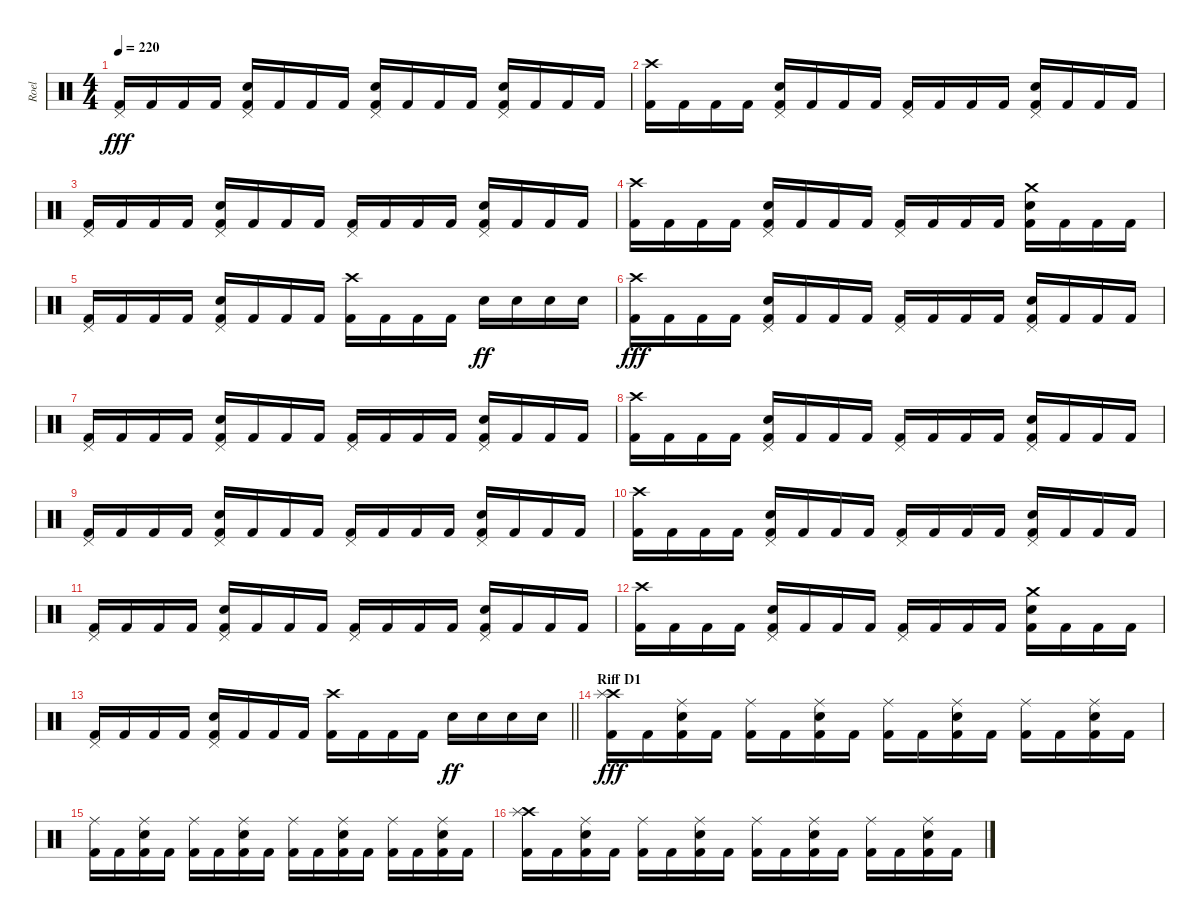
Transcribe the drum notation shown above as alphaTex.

\track ("Roel" "Roel") {instrument percussion}
\staff {score}
\articulation defaults
\ts (4 4)
\tempo 220
\clef neutral
\ks c
("Pedal Hi-Hat (hit)" "Kick (hit) 2").16{dy fff} "Kick (hit) 2".16 "Kick (hit) 2".16 "Kick (hit) 2".16 ("Pedal Hi-Hat (hit)" "Snare (hit) 2" "Kick (hit) 2").16 "Kick (hit) 2".16 "Kick (hit) 2".16 "Kick (hit) 2".16 ("Pedal Hi-Hat (hit)" "Snare (hit) 2" "Kick (hit) 2").16 "Kick (hit) 2".16 "Kick (hit) 2".16 "Kick (hit) 2".16 ("Pedal Hi-Hat (hit)" "Snare (hit) 2" "Kick (hit) 2").16 "Kick (hit) 2".16 "Kick (hit) 2".16 "Kick (hit) 2".16 |
("Crash high (hit)" "Kick (hit) 2").16 "Kick (hit) 2".16 "Kick (hit) 2".16 "Kick (hit) 2".16 ("Pedal Hi-Hat (hit)" "Snare (hit) 2" "Kick (hit) 2").16 "Kick (hit) 2".16 "Kick (hit) 2".16 "Kick (hit) 2".16 ("Pedal Hi-Hat (hit)" "Kick (hit) 2").16 "Kick (hit) 2".16 "Kick (hit) 2".16 "Kick (hit) 2".16 ("Pedal Hi-Hat (hit)" "Snare (hit) 2" "Kick (hit) 2").16 "Kick (hit) 2".16 "Kick (hit) 2".16 "Kick (hit) 2".16 |
("Pedal Hi-Hat (hit)" "Kick (hit) 2").16 "Kick (hit) 2".16 "Kick (hit) 2".16 "Kick (hit) 2".16 ("Pedal Hi-Hat (hit)" "Snare (hit) 2" "Kick (hit) 2").16 "Kick (hit) 2".16 "Kick (hit) 2".16 "Kick (hit) 2".16 ("Pedal Hi-Hat (hit)" "Kick (hit) 2").16 "Kick (hit) 2".16 "Kick (hit) 2".16 "Kick (hit) 2".16 ("Pedal Hi-Hat (hit)" "Snare (hit) 2" "Kick (hit) 2").16 "Kick (hit) 2".16 "Kick (hit) 2".16 "Kick (hit) 2".16 |
("Crash high (hit)" "Kick (hit) 2").16 "Kick (hit) 2".16 "Kick (hit) 2".16 "Kick (hit) 2".16 ("Pedal Hi-Hat (hit)" "Snare (hit) 2" "Kick (hit) 2").16 "Kick (hit) 2".16 "Kick (hit) 2".16 "Kick (hit) 2".16 ("Pedal Hi-Hat (hit)" "Kick (hit) 2").16 "Kick (hit) 2".16 "Kick (hit) 2".16 "Kick (hit) 2".16 ("Crash medium (hit)" "Snare (hit) 2" "Kick (hit) 2").16 "Kick (hit) 2".16 "Kick (hit) 2".16 "Kick (hit) 2".16 |
("Pedal Hi-Hat (hit)" "Kick (hit) 2").16 "Kick (hit) 2".16 "Kick (hit) 2".16 "Kick (hit) 2".16 ("Pedal Hi-Hat (hit)" "Snare (hit) 2" "Kick (hit) 2").16 "Kick (hit) 2".16 "Kick (hit) 2".16 "Kick (hit) 2".16 ("Crash high (hit)" "Kick (hit) 2").16 "Kick (hit) 2".16 "Kick (hit) 2".16 "Kick (hit) 2".16 "Snare (hit) 2".16{dy ff} "Snare (hit) 2".16 "Snare (hit) 2".16 "Snare (hit) 2".16 |
("Crash high (hit)" "Kick (hit) 2").16{dy fff} "Kick (hit) 2".16 "Kick (hit) 2".16 "Kick (hit) 2".16 ("Pedal Hi-Hat (hit)" "Snare (hit) 2" "Kick (hit) 2").16 "Kick (hit) 2".16 "Kick (hit) 2".16 "Kick (hit) 2".16 ("Pedal Hi-Hat (hit)" "Kick (hit) 2").16 "Kick (hit) 2".16 "Kick (hit) 2".16 "Kick (hit) 2".16 ("Pedal Hi-Hat (hit)" "Snare (hit) 2" "Kick (hit) 2").16 "Kick (hit) 2".16 "Kick (hit) 2".16 "Kick (hit) 2".16 |
("Pedal Hi-Hat (hit)" "Kick (hit) 2").16 "Kick (hit) 2".16 "Kick (hit) 2".16 "Kick (hit) 2".16 ("Pedal Hi-Hat (hit)" "Snare (hit) 2" "Kick (hit) 2").16 "Kick (hit) 2".16 "Kick (hit) 2".16 "Kick (hit) 2".16 ("Pedal Hi-Hat (hit)" "Kick (hit) 2").16 "Kick (hit) 2".16 "Kick (hit) 2".16 "Kick (hit) 2".16 ("Pedal Hi-Hat (hit)" "Snare (hit) 2" "Kick (hit) 2").16 "Kick (hit) 2".16 "Kick (hit) 2".16 "Kick (hit) 2".16 |
("Crash high (hit)" "Kick (hit) 2").16 "Kick (hit) 2".16 "Kick (hit) 2".16 "Kick (hit) 2".16 ("Pedal Hi-Hat (hit)" "Snare (hit) 2" "Kick (hit) 2").16 "Kick (hit) 2".16 "Kick (hit) 2".16 "Kick (hit) 2".16 ("Pedal Hi-Hat (hit)" "Kick (hit) 2").16 "Kick (hit) 2".16 "Kick (hit) 2".16 "Kick (hit) 2".16 ("Pedal Hi-Hat (hit)" "Snare (hit) 2" "Kick (hit) 2").16 "Kick (hit) 2".16 "Kick (hit) 2".16 "Kick (hit) 2".16 |
("Pedal Hi-Hat (hit)" "Kick (hit) 2").16 "Kick (hit) 2".16 "Kick (hit) 2".16 "Kick (hit) 2".16 ("Pedal Hi-Hat (hit)" "Snare (hit) 2" "Kick (hit) 2").16 "Kick (hit) 2".16 "Kick (hit) 2".16 "Kick (hit) 2".16 ("Pedal Hi-Hat (hit)" "Kick (hit) 2").16 "Kick (hit) 2".16 "Kick (hit) 2".16 "Kick (hit) 2".16 ("Pedal Hi-Hat (hit)" "Snare (hit) 2" "Kick (hit) 2").16 "Kick (hit) 2".16 "Kick (hit) 2".16 "Kick (hit) 2".16 |
("Crash high (hit)" "Kick (hit) 2").16 "Kick (hit) 2".16 "Kick (hit) 2".16 "Kick (hit) 2".16 ("Pedal Hi-Hat (hit)" "Snare (hit) 2" "Kick (hit) 2").16 "Kick (hit) 2".16 "Kick (hit) 2".16 "Kick (hit) 2".16 ("Pedal Hi-Hat (hit)" "Kick (hit) 2").16 "Kick (hit) 2".16 "Kick (hit) 2".16 "Kick (hit) 2".16 ("Pedal Hi-Hat (hit)" "Snare (hit) 2" "Kick (hit) 2").16 "Kick (hit) 2".16 "Kick (hit) 2".16 "Kick (hit) 2".16 |
("Pedal Hi-Hat (hit)" "Kick (hit) 2").16 "Kick (hit) 2".16 "Kick (hit) 2".16 "Kick (hit) 2".16 ("Pedal Hi-Hat (hit)" "Snare (hit) 2" "Kick (hit) 2").16 "Kick (hit) 2".16 "Kick (hit) 2".16 "Kick (hit) 2".16 ("Pedal Hi-Hat (hit)" "Kick (hit) 2").16 "Kick (hit) 2".16 "Kick (hit) 2".16 "Kick (hit) 2".16 ("Pedal Hi-Hat (hit)" "Snare (hit) 2" "Kick (hit) 2").16 "Kick (hit) 2".16 "Kick (hit) 2".16 "Kick (hit) 2".16 |
("Crash high (hit)" "Kick (hit) 2").16 "Kick (hit) 2".16 "Kick (hit) 2".16 "Kick (hit) 2".16 ("Pedal Hi-Hat (hit)" "Snare (hit) 2" "Kick (hit) 2").16 "Kick (hit) 2".16 "Kick (hit) 2".16 "Kick (hit) 2".16 ("Pedal Hi-Hat (hit)" "Kick (hit) 2").16 "Kick (hit) 2".16 "Kick (hit) 2".16 "Kick (hit) 2".16 ("Crash medium (hit)" "Snare (hit) 2" "Kick (hit) 2").16 "Kick (hit) 2".16 "Kick (hit) 2".16 "Kick (hit) 2".16 |
\barLineRight lightlight
("Pedal Hi-Hat (hit)" "Kick (hit) 2").16 "Kick (hit) 2".16 "Kick (hit) 2".16 "Kick (hit) 2".16 ("Pedal Hi-Hat (hit)" "Snare (hit) 2" "Kick (hit) 2").16 "Kick (hit) 2".16 "Kick (hit) 2".16 "Kick (hit) 2".16 ("Crash high (hit)" "Kick (hit) 2").16 "Kick (hit) 2".16 "Kick (hit) 2".16 "Kick (hit) 2".16 "Snare (hit) 2".16{dy ff} "Snare (hit) 2".16 "Snare (hit) 2".16 "Snare (hit) 2".16 |
\section ("" "Riff D1")
("Crash high (hit)" "Splash (hit)" "Kick (hit) 2").16{dy fff} "Kick (hit) 2".16 ("Ride (middle)" "Snare (hit) 2" "Kick (hit) 2").16 "Kick (hit) 2".16 ("Ride (middle)" "Kick (hit) 2").16 "Kick (hit) 2".16 ("Ride (middle)" "Snare (hit) 2" "Kick (hit) 2").16 "Kick (hit) 2".16 ("Ride (middle)" "Kick (hit) 2").16 "Kick (hit) 2".16 ("Ride (middle)" "Snare (hit) 2" "Kick (hit) 2").16 "Kick (hit) 2".16 ("Ride (middle)" "Kick (hit) 2").16 "Kick (hit) 2".16 ("Ride (middle)" "Snare (hit) 2" "Kick (hit) 2").16 "Kick (hit) 2".16 |
("Ride (middle)" "Kick (hit) 2").16 "Kick (hit) 2".16 ("Ride (middle)" "Snare (hit) 2" "Kick (hit) 2").16 "Kick (hit) 2".16 ("Ride (middle)" "Kick (hit) 2").16 "Kick (hit) 2".16 ("Ride (middle)" "Snare (hit) 2" "Kick (hit) 2").16 "Kick (hit) 2".16 ("Ride (middle)" "Kick (hit) 2").16 "Kick (hit) 2".16 ("Ride (middle)" "Snare (hit) 2" "Kick (hit) 2").16 "Kick (hit) 2".16 ("Ride (middle)" "Kick (hit) 2").16 "Kick (hit) 2".16 ("Ride (middle)" "Snare (hit) 2" "Kick (hit) 2").16 "Kick (hit) 2".16 |
("Crash high (hit)" "Splash (hit)" "Kick (hit) 2").16 "Kick (hit) 2".16 ("Ride (middle)" "Snare (hit) 2" "Kick (hit) 2").16 "Kick (hit) 2".16 ("Ride (middle)" "Kick (hit) 2").16 "Kick (hit) 2".16 ("Ride (middle)" "Snare (hit) 2" "Kick (hit) 2").16 "Kick (hit) 2".16 ("Ride (middle)" "Kick (hit) 2").16 "Kick (hit) 2".16 ("Ride (middle)" "Snare (hit) 2" "Kick (hit) 2").16 "Kick (hit) 2".16 ("Ride (middle)" "Kick (hit) 2").16 "Kick (hit) 2".16 ("Ride (middle)" "Snare (hit) 2" "Kick (hit) 2").16 "Kick (hit) 2".16
